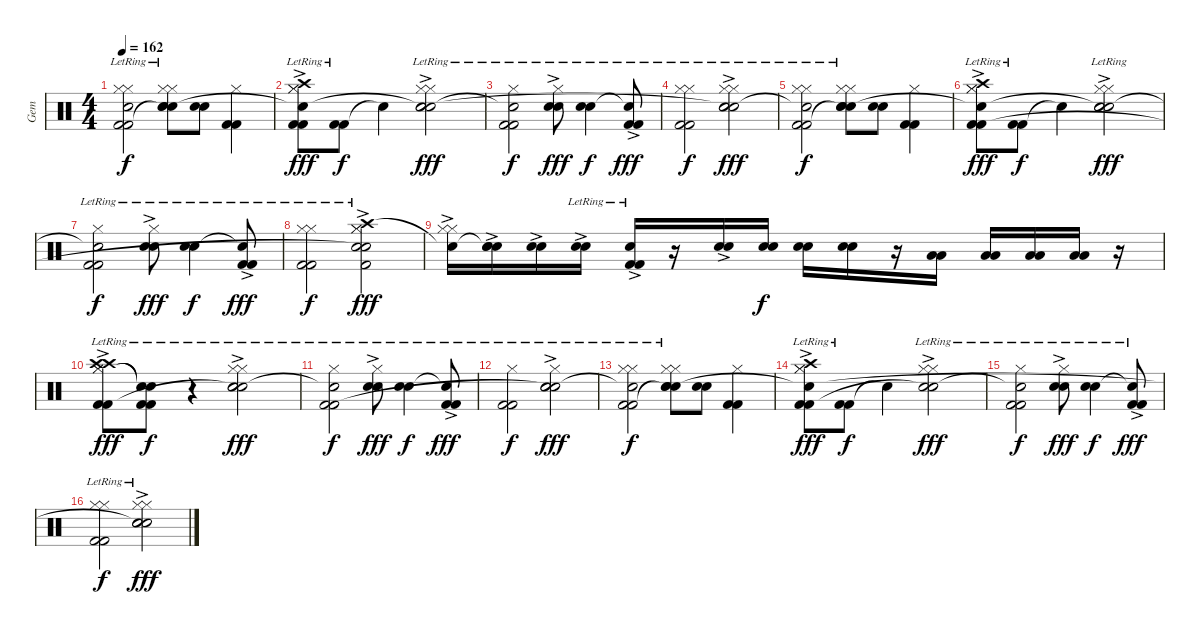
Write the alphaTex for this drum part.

\track ("Gem" "Gem") {instrument percussion}
\staff {score}
\articulation defaults
\ts (4 4)
\tempo 162
\clef neutral
\ks c
("Hi-Hat (closed)"{lr} "Hi-Hat (closed)"{lr} "Kick (hit) 2" "Snare (hit)"{t} "Kick (hit) 2"{lr}).2{dy f} ("Hi-Hat (closed)"{lr} "Hi-Hat (closed)"{lr} "Snare (hit) 2" "Snare (hit) 2"{lr} "Snare (hit)"{t}).8 ("Snare (hit) 2" "Snare (hit) 2").8 ("Hi-Hat (closed)" "Kick (hit) 2" "Kick (hit) 2").4 |
("Hi-Hat (closed)"{lr} "Hi-Hat (closed)"{lr} "Crash high (hit)"{ac lr} "Kick (hit) 2" "Snare (hit)"{t} "Kick (hit) 2"{lr}).8{dy fff} ("Kick (hit) 2" "Kick (hit) 2"{lr}).8{dy f} "Snare (hit)"{t}.4 ("Hi-Hat (closed)"{lr} "Hi-Hat (closed)"{lr} "Snare (hit) 2" "Snare (hit) 2"{ac lr} "Snare (hit)"{t}).2{dy fff} |
("Hi-Hat (closed)"{lr} "Kick (hit) 2" "Snare (hit)"{t} "Kick (hit) 2"{lr}).2{dy f} ("Hi-Hat (closed)"{lr} "Snare (hit) 2" "Snare (hit) 2"{ac lr}).8{dy fff} ("Snare (hit) 2" "Snare (hit) 2"{lr}).4{dy f} ("Kick (hit) 2" "Snare (hit)"{t} "Kick (hit) 2"{ac lr}).8{dy fff} |
("Hi-Hat (closed)"{lr} "Hi-Hat (closed)"{lr} "Kick (hit) 2" "Kick (hit) 2"{lr}).2{dy f} ("Hi-Hat (closed)"{lr} "Hi-Hat (closed)"{lr} "Snare (hit) 2" "Snare (hit) 2"{ac lr} "Snare (hit)"{t}).2{dy fff} |
("Hi-Hat (closed)"{lr} "Hi-Hat (closed)"{lr} "Kick (hit) 2" "Snare (hit)"{t} "Kick (hit) 2"{lr}).2{dy f} ("Hi-Hat (closed)"{lr} "Hi-Hat (closed)"{lr} "Snare (hit) 2" "Snare (hit) 2"{lr} "Snare (hit)"{t}).8 ("Snare (hit) 2" "Snare (hit) 2").8 ("Hi-Hat (closed)" "Kick (hit) 2" "Kick (hit) 2").4 |
("Hi-Hat (closed)"{lr} "Hi-Hat (closed)"{lr} "Crash high (hit)"{ac lr} "Kick (hit) 2" "Snare (hit)"{t} "Kick (hit) 2"{lr}).8{dy fff} ("Kick (hit) 2" "Kick (hit) 2"{lr}).8{dy f} "Snare (hit)"{t}.4 ("Hi-Hat (closed)"{lr} "Hi-Hat (closed)"{lr} "Snare (hit) 2" "Snare (hit) 2"{ac lr} "Snare (hit)"{t}).2{dy fff} |
("Hi-Hat (closed)"{lr} "Kick (hit) 2" "Snare (hit)"{t} "Kick (hit) 2"{lr}).2{dy f} ("Hi-Hat (closed)"{lr} "Snare (hit) 2" "Snare (hit) 2"{ac lr}).8{dy fff} ("Snare (hit) 2" "Snare (hit) 2"{lr}).4{dy f} ("Kick (hit) 2" "Snare (hit)"{t} "Kick (hit) 2"{ac lr}).8{dy fff} |
("Hi-Hat (closed)"{lr} "Hi-Hat (closed)"{lr} "Kick (hit) 2" "Kick (hit) 2"{lr}).2{dy f} ("Hi-Hat (closed)"{lr} "Hi-Hat (closed)"{lr} "Crash high (hit)" "Kick (hit) 2" "Snare (hit) 2"{ac lr} "Snare (hit)"{t}).2{dy fff} |
("Hi-Hat (closed)"{ac} "Hi-Hat (closed)"{ac} "Electric Snare (hit)"{t}).16 ("Snare (hit) 2"{ac} "Snare (hit) 2"{ac} "Snare (hit)"{t}).16 ("Snare (hit) 2" "Snare (hit) 2"{ac}).16 ("Snare (hit) 2"{lr} "Snare (hit) 2"{ac}).16 ("Snare (hit) 2"{ac lr} "Kick (hit) 2" "Kick (hit) 2").16 r.16 ("Electric Snare (hit)"{ac} "Electric Snare (hit)").16 ("Electric Snare (hit)" "Electric Snare (hit)").16{dy f} ("Electric Snare (hit)" "Electric Snare (hit)").16 ("Electric Snare (hit)" "Electric Snare (hit)").16 r.16 ("Low Floor Tom (hit)" "Low Floor Tom (hit)").16 ("Low Floor Tom (hit)" "Low Floor Tom (hit)").16 ("Low Floor Tom (hit)" "Low Floor Tom (hit)").16 ("Low Floor Tom (hit)" "Low Floor Tom (hit)").16 r.16 |
("Hi-Hat (closed)"{lr} "Hi-Hat (closed)"{lr} "Crash high (hit)"{ac lr} "Crash high (hit)"{ac lr} "Kick (hit) 2" "Kick (hit) 2"{lr}).8{dy fff} ("Snare (hit)"{t} "Snare (hit)"{t} "Kick (hit) 2" "Kick (hit) 2"{lr}).8{dy f} r.4 ("Hi-Hat (closed)"{lr} "Hi-Hat (closed)"{lr} "Snare (hit) 2" "Snare (hit) 2"{ac lr} "Snare (hit)"{t}).2{dy fff} |
("Hi-Hat (closed)"{lr} "Kick (hit) 2" "Snare (hit)"{t} "Kick (hit) 2"{lr}).2{dy f} ("Hi-Hat (closed)"{lr} "Snare (hit) 2" "Snare (hit) 2"{ac lr}).8{dy fff} ("Snare (hit) 2" "Snare (hit) 2"{lr}).4{dy f} ("Kick (hit) 2" "Snare (hit)"{t} "Kick (hit) 2"{ac lr}).8{dy fff} |
("Hi-Hat (closed)"{lr} "Kick (hit) 2"{lr} "Kick (hit) 2"{lr}).2{dy f} ("Hi-Hat (closed)"{lr} "Snare (hit) 2"{lr} "Snare (hit) 2"{ac lr} "Snare (hit)"{t}).2{dy fff} |
("Hi-Hat (closed)"{lr} "Hi-Hat (closed)"{lr} "Kick (hit) 2" "Snare (hit)"{t} "Kick (hit) 2"{lr}).2{dy f} ("Hi-Hat (closed)"{lr} "Hi-Hat (closed)"{lr} "Snare (hit) 2" "Snare (hit) 2"{lr} "Snare (hit)"{t}).8 ("Snare (hit) 2" "Snare (hit) 2").8 ("Hi-Hat (closed)" "Kick (hit) 2" "Kick (hit) 2").4 |
("Hi-Hat (closed)"{lr} "Hi-Hat (closed)"{lr} "Crash high (hit)"{ac lr} "Kick (hit) 2" "Snare (hit)"{t} "Kick (hit) 2"{lr}).8{dy fff} ("Kick (hit) 2" "Kick (hit) 2"{lr}).8{dy f} "Snare (hit)"{t}.4 ("Hi-Hat (closed)"{lr} "Hi-Hat (closed)"{lr} "Snare (hit) 2"{ac lr} "Snare (hit)"{t}).2{dy fff} |
("Hi-Hat (closed)"{lr} "Kick (hit) 2" "Snare (hit)"{t} "Kick (hit) 2"{lr}).2{dy f} ("Hi-Hat (closed)"{lr} "Snare (hit) 2" "Snare (hit) 2"{ac lr}).8{dy fff} ("Snare (hit) 2" "Snare (hit) 2"{lr}).4{dy f} ("Kick (hit) 2" "Snare (hit)"{t} "Kick (hit) 2"{ac lr}).8{dy fff} |
("Hi-Hat (closed)"{lr} "Hi-Hat (closed)"{lr} "Kick (hit) 2" "Kick (hit) 2"{lr}).2{dy f} ("Hi-Hat (closed)"{lr} "Hi-Hat (closed)"{lr} "Snare (hit) 2" "Snare (hit) 2"{ac lr} "Snare (hit)"{t}).2{dy fff}
